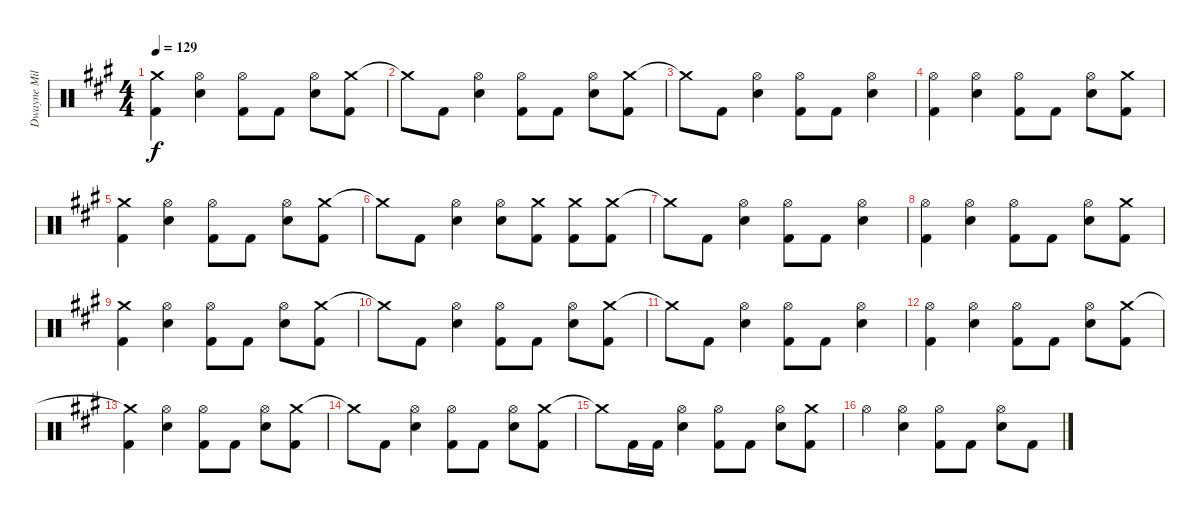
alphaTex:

\track ("Dwayne Miller" "Dwayne Mil") {instrument percussion}
\staff {score}
\articulation defaults
\ts (4 4)
\tempo 129
\clef neutral
\ks a
("Crash medium (hit)" "Kick (hit) 2").4{dy f} ("Hi-Hat (open)" "Snare (hit) 2").4 ("Hi-Hat (open)" "Kick (hit) 2").8 "Kick (hit) 2".8 ("Hi-Hat (open)" "Snare (hit) 2").8 ("Crash medium (hit)" "Kick (hit) 2").8 |
"Crash medium (hit)"{t}.8 "Kick (hit) 2".8 ("Hi-Hat (open)" "Snare (hit) 2").4 ("Hi-Hat (open)" "Kick (hit) 2").8 "Kick (hit) 2".8 ("Hi-Hat (open)" "Snare (hit) 2").8 ("Crash medium (hit)" "Kick (hit) 2").8 |
"Crash medium (hit)"{t}.8 "Kick (hit) 2".8 ("Hi-Hat (open)" "Snare (hit) 2").4 ("Hi-Hat (open)" "Kick (hit) 2").8 "Kick (hit) 2".8 ("Hi-Hat (open)" "Snare (hit) 2").4 |
("Hi-Hat (open)" "Kick (hit) 2").4 ("Hi-Hat (open)" "Snare (hit) 2").4 ("Hi-Hat (open)" "Kick (hit) 2").8 "Kick (hit) 2".8 ("Hi-Hat (open)" "Snare (hit) 2").8 ("Crash medium (hit)" "Kick (hit) 2").8 |
("Crash medium (hit)" "Kick (hit) 2").4 ("Hi-Hat (open)" "Snare (hit) 2").4 ("Hi-Hat (open)" "Kick (hit) 2").8 "Kick (hit) 2".8 ("Hi-Hat (open)" "Snare (hit) 2").8 ("Crash medium (hit)" "Kick (hit) 2").8 |
"Crash medium (hit)"{t}.8 "Kick (hit) 2".8 ("Hi-Hat (open)" "Snare (hit) 2").4 ("Hi-Hat (open)" "Snare (hit) 2").8 ("Crash medium (hit)" "Kick (hit) 2").8 ("Crash medium (hit)" "Kick (hit) 2").8 ("Crash medium (hit)" "Kick (hit) 2").8 |
"Crash medium (hit)"{t}.8 "Kick (hit) 2".8 ("Hi-Hat (open)" "Snare (hit) 2").4 ("Hi-Hat (open)" "Kick (hit) 2").8 "Kick (hit) 2".8 ("Hi-Hat (open)" "Snare (hit) 2").4 |
("Hi-Hat (open)" "Kick (hit) 2").4 ("Hi-Hat (open)" "Snare (hit) 2").4 ("Hi-Hat (open)" "Kick (hit) 2").8 "Kick (hit) 2".8 ("Hi-Hat (open)" "Snare (hit) 2").8 ("Crash medium (hit)" "Kick (hit) 2").8 |
("Crash medium (hit)" "Kick (hit) 2").4 ("Hi-Hat (open)" "Snare (hit) 2").4 ("Hi-Hat (open)" "Kick (hit) 2").8 "Kick (hit) 2".8 ("Hi-Hat (open)" "Snare (hit) 2").8 ("Crash medium (hit)" "Kick (hit) 2").8 |
"Crash medium (hit)"{t}.8 "Kick (hit) 2".8 ("Hi-Hat (open)" "Snare (hit) 2").4 ("Hi-Hat (open)" "Kick (hit) 2").8 "Kick (hit) 2".8 ("Hi-Hat (open)" "Snare (hit) 2").8 ("Crash medium (hit)" "Kick (hit) 2").8 |
"Crash medium (hit)"{t}.8 "Kick (hit) 2".8 ("Hi-Hat (open)" "Snare (hit) 2").4 ("Hi-Hat (open)" "Kick (hit) 2").8 "Kick (hit) 2".8 ("Hi-Hat (open)" "Snare (hit) 2").4 |
("Hi-Hat (open)" "Kick (hit) 2").4 ("Hi-Hat (open)" "Snare (hit) 2").4 ("Hi-Hat (open)" "Kick (hit) 2").8 "Kick (hit) 2".8 ("Hi-Hat (open)" "Snare (hit) 2").8 ("Crash medium (hit)" "Kick (hit) 2").8 |
("Crash medium (hit)"{t} "Kick (hit) 2").4 ("Hi-Hat (open)" "Snare (hit) 2").4 ("Hi-Hat (open)" "Kick (hit) 2").8 "Kick (hit) 2".8 ("Hi-Hat (open)" "Snare (hit) 2").8 ("Crash medium (hit)" "Kick (hit) 2").8 |
"Crash medium (hit)"{t}.8 "Kick (hit) 2".8 ("Hi-Hat (open)" "Snare (hit) 2").4 ("Hi-Hat (open)" "Kick (hit) 2").8 "Kick (hit) 2".8 ("Hi-Hat (open)" "Snare (hit) 2").8 ("Crash medium (hit)" "Kick (hit) 2").8 |
"Crash medium (hit)"{t}.8 "Kick (hit) 2".16 "Kick (hit) 2".16 ("Hi-Hat (open)" "Snare (hit) 2").4 ("Hi-Hat (open)" "Kick (hit) 2").8 "Kick (hit) 2".8 ("Hi-Hat (open)" "Snare (hit) 2").8 ("Crash medium (hit)" "Kick (hit) 2").8 |
"Hi-Hat (open)".4 ("Hi-Hat (open)" "Snare (hit) 2").4 ("Hi-Hat (open)" "Kick (hit) 2").8 "Kick (hit) 2".8 ("Hi-Hat (open)" "Snare (hit) 2").8 "Kick (hit) 2".8
